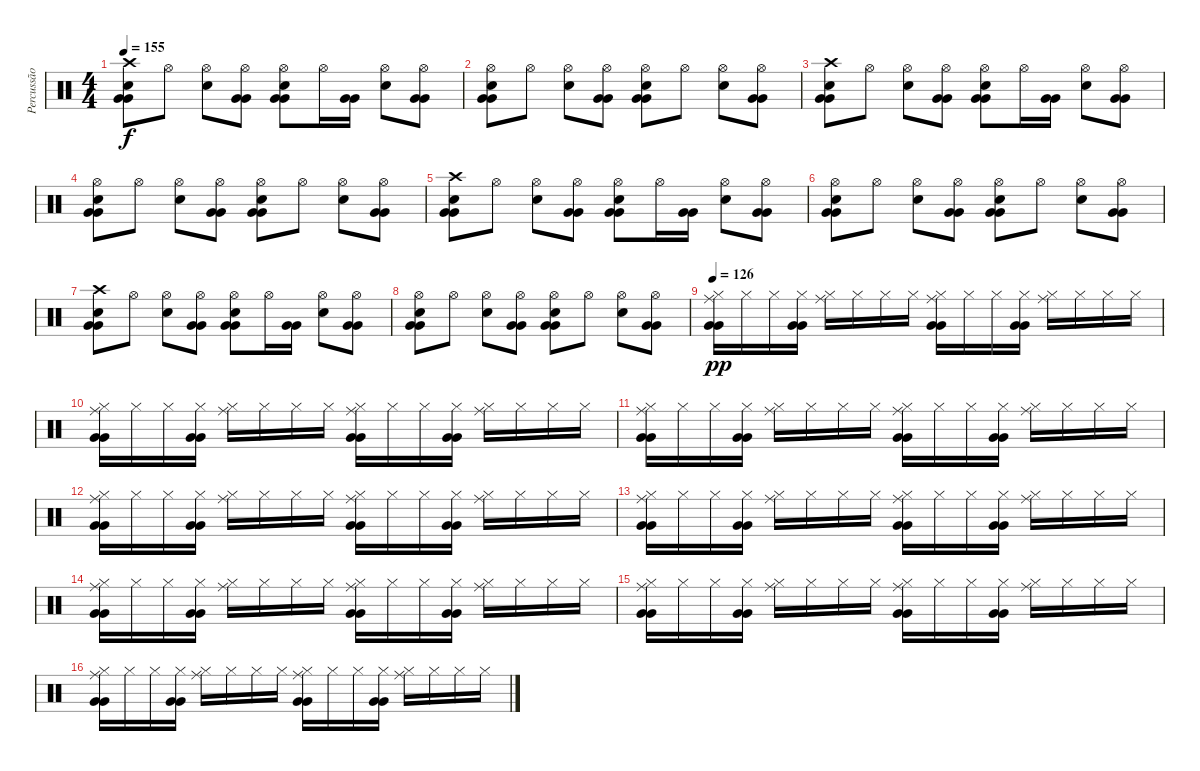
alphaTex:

\track ("Percussão" "Percussão") {instrument percussion}
\staff {score}
\articulation defaults
\ts (4 4)
\tempo 155
\clef neutral
\ks c
("Crash high (hit)" "Electric Snare (hit)" "Very Low Tom (hit)" "Very Low Tom (hit)").8{dy f} "Hi-Hat (open)".8 ("Hi-Hat (open)" "Electric Snare (hit)").8 ("Hi-Hat (open)" "Very Low Tom (hit)" "Very Low Tom (hit)").8 ("Hi-Hat (open)" "Electric Snare (hit)" "Very Low Tom (hit)" "Very Low Tom (hit)").8 "Hi-Hat (open)".16 ("Very Low Tom (hit)" "Very Low Tom (hit)").16 ("Hi-Hat (open)" "Electric Snare (hit)").8 ("Hi-Hat (open)" "Very Low Tom (hit)" "Very Low Tom (hit)").8 |
("Hi-Hat (open)" "Electric Snare (hit)" "Very Low Tom (hit)" "Very Low Tom (hit)").8 "Hi-Hat (open)".8 ("Hi-Hat (open)" "Electric Snare (hit)").8 ("Hi-Hat (open)" "Very Low Tom (hit)" "Very Low Tom (hit)").8 ("Hi-Hat (open)" "Electric Snare (hit)" "Very Low Tom (hit)" "Very Low Tom (hit)").8 "Hi-Hat (open)".8 ("Hi-Hat (open)" "Electric Snare (hit)").8 ("Hi-Hat (open)" "Very Low Tom (hit)" "Very Low Tom (hit)").8 |
("Crash high (hit)" "Electric Snare (hit)" "Very Low Tom (hit)" "Very Low Tom (hit)").8 "Hi-Hat (open)".8 ("Hi-Hat (open)" "Electric Snare (hit)").8 ("Hi-Hat (open)" "Very Low Tom (hit)" "Very Low Tom (hit)").8 ("Hi-Hat (open)" "Electric Snare (hit)" "Very Low Tom (hit)" "Very Low Tom (hit)").8 "Hi-Hat (open)".16 ("Very Low Tom (hit)" "Very Low Tom (hit)").16 ("Hi-Hat (open)" "Electric Snare (hit)").8 ("Hi-Hat (open)" "Very Low Tom (hit)" "Very Low Tom (hit)").8 |
("Hi-Hat (open)" "Electric Snare (hit)" "Very Low Tom (hit)" "Very Low Tom (hit)").8 "Hi-Hat (open)".8 ("Hi-Hat (open)" "Electric Snare (hit)").8 ("Hi-Hat (open)" "Very Low Tom (hit)" "Very Low Tom (hit)").8 ("Hi-Hat (open)" "Electric Snare (hit)" "Very Low Tom (hit)" "Very Low Tom (hit)").8 "Hi-Hat (open)".8 ("Hi-Hat (open)" "Electric Snare (hit)").8 ("Hi-Hat (open)" "Very Low Tom (hit)" "Very Low Tom (hit)").8 |
("Crash high (hit)" "Electric Snare (hit)" "Very Low Tom (hit)" "Very Low Tom (hit)").8 "Hi-Hat (open)".8 ("Hi-Hat (open)" "Electric Snare (hit)").8 ("Hi-Hat (open)" "Very Low Tom (hit)" "Very Low Tom (hit)").8 ("Hi-Hat (open)" "Electric Snare (hit)" "Very Low Tom (hit)" "Very Low Tom (hit)").8 "Hi-Hat (open)".16 ("Very Low Tom (hit)" "Very Low Tom (hit)").16 ("Hi-Hat (open)" "Electric Snare (hit)").8 ("Hi-Hat (open)" "Very Low Tom (hit)" "Very Low Tom (hit)").8 |
("Hi-Hat (open)" "Electric Snare (hit)" "Very Low Tom (hit)" "Very Low Tom (hit)").8 "Hi-Hat (open)".8 ("Hi-Hat (open)" "Electric Snare (hit)").8 ("Hi-Hat (open)" "Very Low Tom (hit)" "Very Low Tom (hit)").8 ("Hi-Hat (open)" "Electric Snare (hit)" "Very Low Tom (hit)" "Very Low Tom (hit)").8 "Hi-Hat (open)".8 ("Hi-Hat (open)" "Electric Snare (hit)").8 ("Hi-Hat (open)" "Very Low Tom (hit)" "Very Low Tom (hit)").8 |
("Crash high (hit)" "Electric Snare (hit)" "Very Low Tom (hit)" "Very Low Tom (hit)").8 "Hi-Hat (open)".8 ("Hi-Hat (open)" "Electric Snare (hit)").8 ("Hi-Hat (open)" "Very Low Tom (hit)" "Very Low Tom (hit)").8 ("Hi-Hat (open)" "Electric Snare (hit)" "Very Low Tom (hit)" "Very Low Tom (hit)").8 "Hi-Hat (open)".16 ("Very Low Tom (hit)" "Very Low Tom (hit)").16 ("Hi-Hat (open)" "Electric Snare (hit)").8 ("Hi-Hat (open)" "Very Low Tom (hit)" "Very Low Tom (hit)").8 |
("Hi-Hat (open)" "Electric Snare (hit)" "Very Low Tom (hit)" "Very Low Tom (hit)").8 "Hi-Hat (open)".8 ("Hi-Hat (open)" "Electric Snare (hit)").8 ("Hi-Hat (open)" "Very Low Tom (hit)" "Very Low Tom (hit)").8 ("Hi-Hat (open)" "Electric Snare (hit)" "Very Low Tom (hit)" "Very Low Tom (hit)").8 "Hi-Hat (open)".8 ("Hi-Hat (open)" "Electric Snare (hit)").8 ("Hi-Hat (open)" "Very Low Tom (hit)" "Very Low Tom (hit)").8 |
\tempo 126
("Ride (middle)" "Hi-Hat (closed)" "Very Low Tom (hit)" "Very Low Tom (hit)").16{dy pp} "Hi-Hat (closed)".16 "Hi-Hat (closed)".16 ("Hi-Hat (closed)" "Very Low Tom (hit)" "Very Low Tom (hit)").16 ("Ride (middle)" "Hi-Hat (closed)").16 "Hi-Hat (closed)".16 "Hi-Hat (closed)".16 "Hi-Hat (closed)".16 ("Ride (middle)" "Hi-Hat (closed)" "Very Low Tom (hit)" "Very Low Tom (hit)").16 "Hi-Hat (closed)".16 "Hi-Hat (closed)".16 ("Hi-Hat (closed)" "Very Low Tom (hit)" "Very Low Tom (hit)").16 ("Ride (middle)" "Hi-Hat (closed)").16 "Hi-Hat (closed)".16 "Hi-Hat (closed)".16 "Hi-Hat (closed)".16 |
("Ride (middle)" "Hi-Hat (closed)" "Very Low Tom (hit)" "Very Low Tom (hit)").16 "Hi-Hat (closed)".16 "Hi-Hat (closed)".16 ("Hi-Hat (closed)" "Very Low Tom (hit)" "Very Low Tom (hit)").16 ("Ride (middle)" "Hi-Hat (closed)").16 "Hi-Hat (closed)".16 "Hi-Hat (closed)".16 "Hi-Hat (closed)".16 ("Ride (middle)" "Hi-Hat (closed)" "Very Low Tom (hit)" "Very Low Tom (hit)").16 "Hi-Hat (closed)".16 "Hi-Hat (closed)".16 ("Hi-Hat (closed)" "Very Low Tom (hit)" "Very Low Tom (hit)").16 ("Ride (middle)" "Hi-Hat (closed)").16 "Hi-Hat (closed)".16 "Hi-Hat (closed)".16 "Hi-Hat (closed)".16 |
("Ride (middle)" "Hi-Hat (closed)" "Very Low Tom (hit)" "Very Low Tom (hit)").16 "Hi-Hat (closed)".16 "Hi-Hat (closed)".16 ("Hi-Hat (closed)" "Very Low Tom (hit)" "Very Low Tom (hit)").16 ("Ride (middle)" "Hi-Hat (closed)").16 "Hi-Hat (closed)".16 "Hi-Hat (closed)".16 "Hi-Hat (closed)".16 ("Ride (middle)" "Hi-Hat (closed)" "Very Low Tom (hit)" "Very Low Tom (hit)").16 "Hi-Hat (closed)".16 "Hi-Hat (closed)".16 ("Hi-Hat (closed)" "Very Low Tom (hit)" "Very Low Tom (hit)").16 ("Ride (middle)" "Hi-Hat (closed)").16 "Hi-Hat (closed)".16 "Hi-Hat (closed)".16 "Hi-Hat (closed)".16 |
("Ride (middle)" "Hi-Hat (closed)" "Very Low Tom (hit)" "Very Low Tom (hit)").16 "Hi-Hat (closed)".16 "Hi-Hat (closed)".16 ("Hi-Hat (closed)" "Very Low Tom (hit)" "Very Low Tom (hit)").16 ("Ride (middle)" "Hi-Hat (closed)").16 "Hi-Hat (closed)".16 "Hi-Hat (closed)".16 "Hi-Hat (closed)".16 ("Ride (middle)" "Hi-Hat (closed)" "Very Low Tom (hit)" "Very Low Tom (hit)").16 "Hi-Hat (closed)".16 "Hi-Hat (closed)".16 ("Hi-Hat (closed)" "Very Low Tom (hit)" "Very Low Tom (hit)").16 ("Ride (middle)" "Hi-Hat (closed)").16 "Hi-Hat (closed)".16 "Hi-Hat (closed)".16 "Hi-Hat (closed)".16 |
("Ride (middle)" "Hi-Hat (closed)" "Very Low Tom (hit)" "Very Low Tom (hit)").16 "Hi-Hat (closed)".16 "Hi-Hat (closed)".16 ("Hi-Hat (closed)" "Very Low Tom (hit)" "Very Low Tom (hit)").16 ("Ride (middle)" "Hi-Hat (closed)").16 "Hi-Hat (closed)".16 "Hi-Hat (closed)".16 "Hi-Hat (closed)".16 ("Ride (middle)" "Hi-Hat (closed)" "Very Low Tom (hit)" "Very Low Tom (hit)").16 "Hi-Hat (closed)".16 "Hi-Hat (closed)".16 ("Hi-Hat (closed)" "Very Low Tom (hit)" "Very Low Tom (hit)").16 ("Ride (middle)" "Hi-Hat (closed)").16 "Hi-Hat (closed)".16 "Hi-Hat (closed)".16 "Hi-Hat (closed)".16 |
("Ride (middle)" "Hi-Hat (closed)" "Very Low Tom (hit)" "Very Low Tom (hit)").16 "Hi-Hat (closed)".16 "Hi-Hat (closed)".16 ("Hi-Hat (closed)" "Very Low Tom (hit)" "Very Low Tom (hit)").16 ("Ride (middle)" "Hi-Hat (closed)").16 "Hi-Hat (closed)".16 "Hi-Hat (closed)".16 "Hi-Hat (closed)".16 ("Ride (middle)" "Hi-Hat (closed)" "Very Low Tom (hit)" "Very Low Tom (hit)").16 "Hi-Hat (closed)".16 "Hi-Hat (closed)".16 ("Hi-Hat (closed)" "Very Low Tom (hit)" "Very Low Tom (hit)").16 ("Ride (middle)" "Hi-Hat (closed)").16 "Hi-Hat (closed)".16 "Hi-Hat (closed)".16 "Hi-Hat (closed)".16 |
("Ride (middle)" "Hi-Hat (closed)" "Very Low Tom (hit)" "Very Low Tom (hit)").16 "Hi-Hat (closed)".16 "Hi-Hat (closed)".16 ("Hi-Hat (closed)" "Very Low Tom (hit)" "Very Low Tom (hit)").16 ("Ride (middle)" "Hi-Hat (closed)").16 "Hi-Hat (closed)".16 "Hi-Hat (closed)".16 "Hi-Hat (closed)".16 ("Ride (middle)" "Hi-Hat (closed)" "Very Low Tom (hit)" "Very Low Tom (hit)").16 "Hi-Hat (closed)".16 "Hi-Hat (closed)".16 ("Hi-Hat (closed)" "Very Low Tom (hit)" "Very Low Tom (hit)").16 ("Ride (middle)" "Hi-Hat (closed)").16 "Hi-Hat (closed)".16 "Hi-Hat (closed)".16 "Hi-Hat (closed)".16 |
("Ride (middle)" "Hi-Hat (closed)" "Very Low Tom (hit)" "Very Low Tom (hit)").16 "Hi-Hat (closed)".16 "Hi-Hat (closed)".16 ("Hi-Hat (closed)" "Very Low Tom (hit)" "Very Low Tom (hit)").16 ("Ride (middle)" "Hi-Hat (closed)").16 "Hi-Hat (closed)".16 "Hi-Hat (closed)".16 "Hi-Hat (closed)".16 ("Ride (middle)" "Hi-Hat (closed)" "Very Low Tom (hit)" "Very Low Tom (hit)").16 "Hi-Hat (closed)".16 "Hi-Hat (closed)".16 ("Hi-Hat (closed)" "Very Low Tom (hit)" "Very Low Tom (hit)").16 ("Ride (middle)" "Hi-Hat (closed)").16 "Hi-Hat (closed)".16 "Hi-Hat (closed)".16 "Hi-Hat (closed)".16
